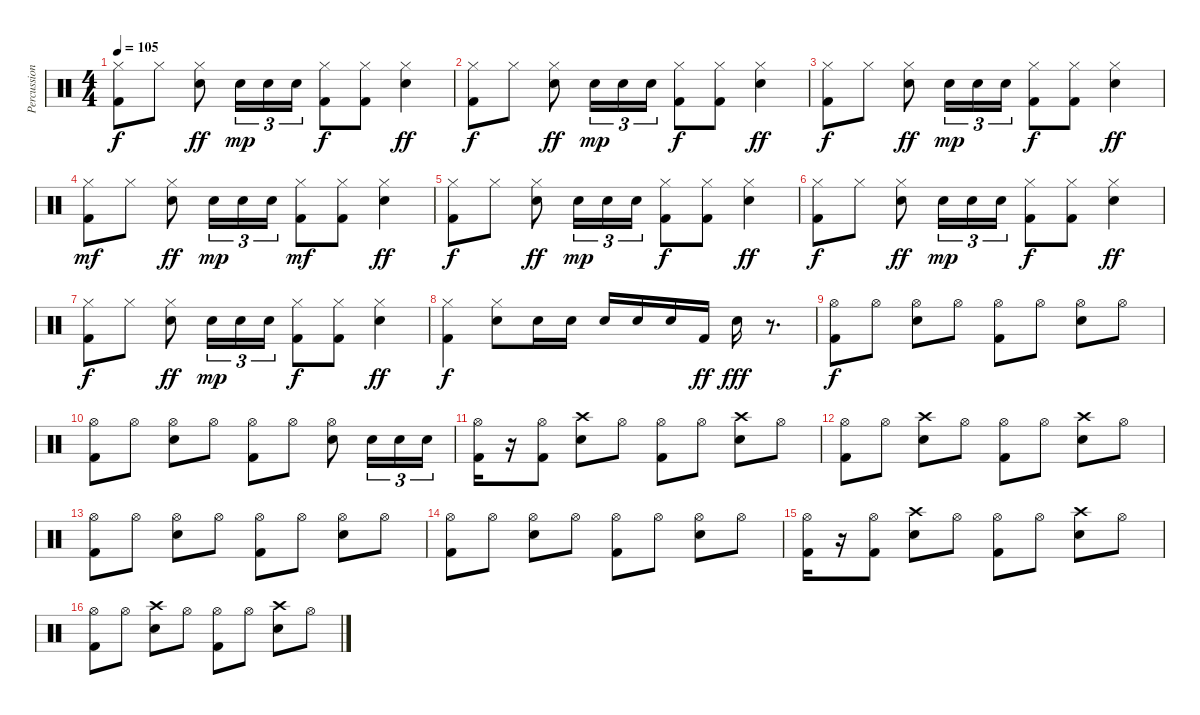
\track ("Percussion" "Percussion") {instrument percussion}
\staff {score}
\articulation defaults
\ts (4 4)
\tempo 105
\clef neutral
\ks c
("Hi-Hat (closed)" "Kick (hit) 2").8{dy f} "Hi-Hat (closed)".8 ("Hi-Hat (closed)" "Snare (hit) 2").8{dy ff} "Snare (hit) 2".16{tu (3 2) dy mp} "Snare (hit) 2".16{tu (3 2)} "Snare (hit) 2".16{tu (3 2)} ("Hi-Hat (closed)" "Kick (hit) 2").8{dy f} ("Hi-Hat (closed)" "Kick (hit) 2").8 ("Hi-Hat (closed)" "Snare (hit) 2").4{dy ff} |
("Hi-Hat (closed)" "Kick (hit) 2").8{dy f} "Hi-Hat (closed)".8 ("Hi-Hat (closed)" "Snare (hit) 2").8{dy ff} "Snare (hit) 2".16{tu (3 2) dy mp} "Snare (hit) 2".16{tu (3 2)} "Snare (hit) 2".16{tu (3 2)} ("Hi-Hat (closed)" "Kick (hit) 2").8{dy f} ("Hi-Hat (closed)" "Kick (hit) 2").8 ("Hi-Hat (closed)" "Snare (hit) 2").4{dy ff} |
("Hi-Hat (closed)" "Kick (hit) 2").8{dy f} "Hi-Hat (closed)".8 ("Hi-Hat (closed)" "Snare (hit) 2").8{dy ff} "Snare (hit) 2".16{tu (3 2) dy mp} "Snare (hit) 2".16{tu (3 2)} "Snare (hit) 2".16{tu (3 2)} ("Hi-Hat (closed)" "Kick (hit) 2").8{dy f} ("Hi-Hat (closed)" "Kick (hit) 2").8 ("Hi-Hat (closed)" "Snare (hit) 2").4{dy ff} |
("Hi-Hat (closed)" "Kick (hit) 2").8{dy mf} "Hi-Hat (closed)".8 ("Hi-Hat (closed)" "Snare (hit) 2").8{dy ff} "Snare (hit) 2".16{tu (3 2) dy mp} "Snare (hit) 2".16{tu (3 2)} "Snare (hit) 2".16{tu (3 2)} ("Hi-Hat (closed)" "Kick (hit) 2").8{dy mf} ("Hi-Hat (closed)" "Kick (hit) 2").8 ("Hi-Hat (closed)" "Snare (hit) 2").4{dy ff} |
("Hi-Hat (closed)" "Kick (hit) 2").8{dy f} "Hi-Hat (closed)".8 ("Hi-Hat (closed)" "Snare (hit) 2").8{dy ff} "Snare (hit) 2".16{tu (3 2) dy mp} "Snare (hit) 2".16{tu (3 2)} "Snare (hit) 2".16{tu (3 2)} ("Hi-Hat (closed)" "Kick (hit) 2").8{dy f} ("Hi-Hat (closed)" "Kick (hit) 2").8 ("Hi-Hat (closed)" "Snare (hit) 2").4{dy ff} |
("Hi-Hat (closed)" "Kick (hit) 2").8{dy f} "Hi-Hat (closed)".8 ("Hi-Hat (closed)" "Snare (hit) 2").8{dy ff} "Snare (hit) 2".16{tu (3 2) dy mp} "Snare (hit) 2".16{tu (3 2)} "Snare (hit) 2".16{tu (3 2)} ("Hi-Hat (closed)" "Kick (hit) 2").8{dy f} ("Hi-Hat (closed)" "Kick (hit) 2").8 ("Hi-Hat (closed)" "Snare (hit) 2").4{dy ff} |
("Hi-Hat (closed)" "Kick (hit) 2").8{dy f} "Hi-Hat (closed)".8 ("Hi-Hat (closed)" "Snare (hit) 2").8{dy ff} "Snare (hit) 2".16{tu (3 2) dy mp} "Snare (hit) 2".16{tu (3 2)} "Snare (hit) 2".16{tu (3 2)} ("Hi-Hat (closed)" "Kick (hit) 2").8{dy f} ("Hi-Hat (closed)" "Kick (hit) 2").8 ("Hi-Hat (closed)" "Snare (hit) 2").4{dy ff} |
("Hi-Hat (closed)" "Kick (hit) 2").4{dy f} ("Hi-Hat (closed)" "Snare (hit) 2").8 "Snare (hit) 2".16 "Snare (hit) 2".16 "Snare (hit) 2".16 "Snare (hit) 2".16 "Snare (hit) 2".16 "Kick (hit) 2".16{dy ff} "Snare (hit) 2".16{dy fff} r.8{d} |
("Hi-Hat (open)" "Kick (hit) 2").8{dy f} "Hi-Hat (open)".8 ("Hi-Hat (open)" "Snare (hit) 2").8 "Hi-Hat (open)".8 ("Hi-Hat (open)" "Kick (hit) 2").8 "Hi-Hat (open)".8 ("Hi-Hat (open)" "Snare (hit) 2").8 "Hi-Hat (open)".8 |
("Hi-Hat (open)" "Kick (hit) 2").8 "Hi-Hat (open)".8 ("Hi-Hat (open)" "Snare (hit) 2").8 "Hi-Hat (open)".8 ("Hi-Hat (open)" "Kick (hit) 2").8 "Hi-Hat (open)".8 ("Hi-Hat (open)" "Snare (hit) 2").8 "Snare (hit) 2".16{tu (3 2)} "Snare (hit) 2".16{tu (3 2)} "Snare (hit) 2".16{tu (3 2)} |
("Hi-Hat (open)" "Kick (hit) 2").16 r.16 ("Hi-Hat (open)" "Kick (hit) 2").8 ("Crash high (hit)" "Snare (hit) 2").8 "Hi-Hat (open)".8 ("Hi-Hat (open)" "Kick (hit) 2").8 "Hi-Hat (open)".8 ("Crash high (hit)" "Snare (hit) 2").8 "Hi-Hat (open)".8 |
("Hi-Hat (open)" "Kick (hit) 2").8 "Hi-Hat (open)".8 ("Crash high (hit)" "Snare (hit) 2").8 "Hi-Hat (open)".8 ("Hi-Hat (open)" "Kick (hit) 2").8 "Hi-Hat (open)".8 ("Crash high (hit)" "Snare (hit) 2").8 "Hi-Hat (open)".8 |
("Hi-Hat (open)" "Kick (hit) 2").8 "Hi-Hat (open)".8 ("Hi-Hat (open)" "Snare (hit) 2").8 "Hi-Hat (open)".8 ("Hi-Hat (open)" "Kick (hit) 2").8 "Hi-Hat (open)".8 ("Hi-Hat (open)" "Snare (hit) 2").8 "Hi-Hat (open)".8 |
("Hi-Hat (open)" "Kick (hit) 2").8 "Hi-Hat (open)".8 ("Hi-Hat (open)" "Snare (hit) 2").8 "Hi-Hat (open)".8 ("Hi-Hat (open)" "Kick (hit) 2").8 "Hi-Hat (open)".8 ("Hi-Hat (open)" "Snare (hit) 2").8 "Hi-Hat (open)".8 |
("Hi-Hat (open)" "Kick (hit) 2").16 r.16 ("Hi-Hat (open)" "Kick (hit) 2").8 ("Crash high (hit)" "Snare (hit) 2").8 "Hi-Hat (open)".8 ("Hi-Hat (open)" "Kick (hit) 2").8 "Hi-Hat (open)".8 ("Crash high (hit)" "Snare (hit) 2").8 "Hi-Hat (open)".8 |
("Hi-Hat (open)" "Kick (hit) 2").8 "Hi-Hat (open)".8 ("Crash high (hit)" "Snare (hit) 2").8 "Hi-Hat (open)".8 ("Hi-Hat (open)" "Kick (hit) 2").8 "Hi-Hat (open)".8 ("Crash high (hit)" "Snare (hit) 2").8 "Hi-Hat (open)".8
